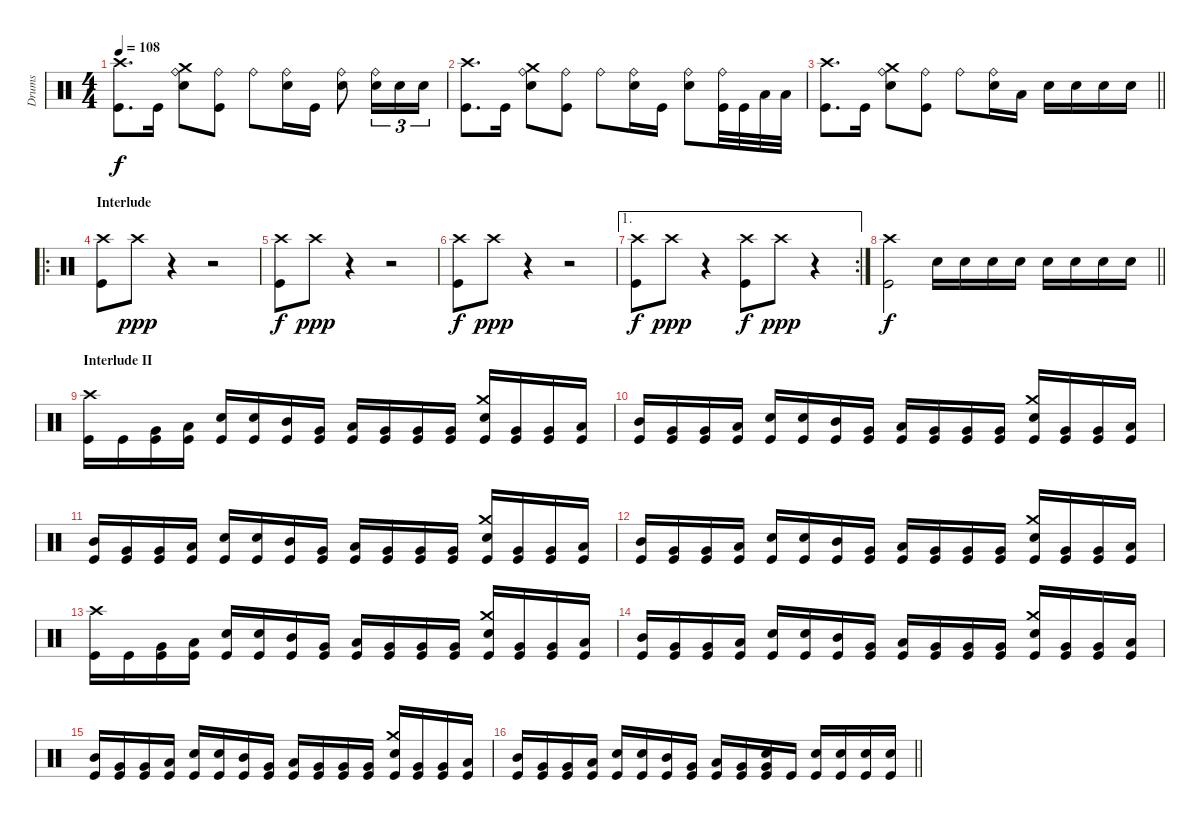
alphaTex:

\track ("Drums" "Drums") {instrument percussion}
\staff {score}
\articulation defaults
\ts (4 4)
\tempo 108
\clef neutral
\ks c
("Crash high (hit)" "Kick (hit)").8{d dy f} "Kick (hit)".16 ("Crash medium (hit)" "Ride (bell)" "Electric Snare (hit)").8 ("Ride (bell)" "Kick (hit)").8 "Ride (bell)".8 ("Ride (bell)" "Electric Snare (hit)").16 "Kick (hit)".16 ("Ride (bell)" "Electric Snare (hit)").8 ("Ride (bell)" "Electric Snare (hit)").16{tu (3 2)} "Electric Snare (hit)".16{tu (3 2)} "Electric Snare (hit)".16{tu (3 2)} |
("Crash high (hit)" "Kick (hit)").8{d} "Kick (hit)".16 ("Crash medium (hit)" "Ride (bell)" "Electric Snare (hit)").8 ("Ride (bell)" "Kick (hit)").8 "Ride (bell)".8 ("Ride (bell)" "Electric Snare (hit)").16 "Kick (hit)".16 ("Ride (bell)" "Electric Snare (hit)").8 ("Ride (bell)" "Kick (hit)").32 "Kick (hit)".32 "Low Tom (hit)".32 "Low Tom (hit)".32 |
\barLineRight lightlight
("Crash high (hit)" "Kick (hit)").8{d} "Kick (hit)".16 ("Crash medium (hit)" "Ride (bell)" "Electric Snare (hit)").8 ("Ride (bell)" "Kick (hit)").8 "Ride (bell)".8 ("Ride (bell)" "Electric Snare (hit)").16 "Low Tom (hit)".16 "Electric Snare (hit)".16 "Electric Snare (hit)".16 "Electric Snare (hit)".16 "Electric Snare (hit)".16 |
\ro
\section ("" "Interlude")
("Crash high (hit)" "Kick (hit)").8 "Crash high (hit)".8{dy ppp} r.4 r.2 |
("Crash high (hit)" "Kick (hit)").8{dy f} "Crash high (hit)".8{dy ppp} r.4 r.2 |
("Crash high (hit)" "Kick (hit)").8{dy f} "Crash high (hit)".8{dy ppp} r.4 r.2 |
\ae 1
\rc 2
("Crash high (hit)" "Kick (hit)").8{dy f} "Crash high (hit)".8{dy ppp} r.4 ("Crash high (hit)" "Kick (hit)").8{dy f} "Crash high (hit)".8{dy ppp} r.4 |
\barLineRight lightlight
("Crash high (hit)" "Kick (hit)").2{dy f} "Electric Snare (hit)".16 "Electric Snare (hit)".16 "Electric Snare (hit)".16 "Electric Snare (hit)".16 "Electric Snare (hit)".16 "Electric Snare (hit)".16 "Electric Snare (hit)".16 "Electric Snare (hit)".16 |
\section ("" "Interlude II")
("Crash high (hit)" "Kick (hit)").16 "Kick (hit)".16 ("Very Low Tom (hit)" "Kick (hit)").16 ("Low Floor Tom (hit)" "Kick (hit)").16 ("Electric Snare (hit)" "Kick (hit)").16 ("Electric Snare (hit)" "Kick (hit)").16 ("Mid Tom (hit)" "Kick (hit)").16 ("Very Low Tom (hit)" "Kick (hit)").16 ("Low Tom (hit)" "Kick (hit)").16 ("Very Low Tom (hit)" "Kick (hit)").16 ("Very Low Tom (hit)" "Kick (hit)").16 ("Very Low Tom (hit)" "Kick (hit)").16 ("Crash medium (hit)" "Electric Snare (hit)" "Kick (hit)").16 ("Very Low Tom (hit)" "Kick (hit)").16 ("Very Low Tom (hit)" "Kick (hit)").16 ("Low Floor Tom (hit)" "Kick (hit)").16 |
("Mid Tom (hit)" "Kick (hit)").16 ("Very Low Tom (hit)" "Kick (hit)").16 ("Very Low Tom (hit)" "Kick (hit)").16 ("Low Floor Tom (hit)" "Kick (hit)").16 ("Electric Snare (hit)" "Kick (hit)").16 ("Electric Snare (hit)" "Kick (hit)").16 ("Mid Tom (hit)" "Kick (hit)").16 ("Very Low Tom (hit)" "Kick (hit)").16 ("Low Tom (hit)" "Kick (hit)").16 ("Very Low Tom (hit)" "Kick (hit)").16 ("Very Low Tom (hit)" "Kick (hit)").16 ("Very Low Tom (hit)" "Kick (hit)").16 ("Crash medium (hit)" "Electric Snare (hit)" "Kick (hit)").16 ("Very Low Tom (hit)" "Kick (hit)").16 ("Very Low Tom (hit)" "Kick (hit)").16 ("Low Floor Tom (hit)" "Kick (hit)").16 |
("Mid Tom (hit)" "Kick (hit)").16 ("Very Low Tom (hit)" "Kick (hit)").16 ("Very Low Tom (hit)" "Kick (hit)").16 ("Low Floor Tom (hit)" "Kick (hit)").16 ("Electric Snare (hit)" "Kick (hit)").16 ("Electric Snare (hit)" "Kick (hit)").16 ("Mid Tom (hit)" "Kick (hit)").16 ("Very Low Tom (hit)" "Kick (hit)").16 ("Low Tom (hit)" "Kick (hit)").16 ("Very Low Tom (hit)" "Kick (hit)").16 ("Very Low Tom (hit)" "Kick (hit)").16 ("Very Low Tom (hit)" "Kick (hit)").16 ("Crash medium (hit)" "Electric Snare (hit)" "Kick (hit)").16 ("Very Low Tom (hit)" "Kick (hit)").16 ("Very Low Tom (hit)" "Kick (hit)").16 ("Low Floor Tom (hit)" "Kick (hit)").16 |
("Mid Tom (hit)" "Kick (hit)").16 ("Very Low Tom (hit)" "Kick (hit)").16 ("Very Low Tom (hit)" "Kick (hit)").16 ("Low Floor Tom (hit)" "Kick (hit)").16 ("Electric Snare (hit)" "Kick (hit)").16 ("Electric Snare (hit)" "Kick (hit)").16 ("Mid Tom (hit)" "Kick (hit)").16 ("Very Low Tom (hit)" "Kick (hit)").16 ("Low Tom (hit)" "Kick (hit)").16 ("Very Low Tom (hit)" "Kick (hit)").16 ("Very Low Tom (hit)" "Kick (hit)").16 ("Very Low Tom (hit)" "Kick (hit)").16 ("Crash medium (hit)" "Electric Snare (hit)" "Kick (hit)").16 ("Very Low Tom (hit)" "Kick (hit)").16 ("Very Low Tom (hit)" "Kick (hit)").16 ("Low Floor Tom (hit)" "Kick (hit)").16 |
("Crash high (hit)" "Kick (hit)").16 "Kick (hit)".16 ("Very Low Tom (hit)" "Kick (hit)").16 ("Low Floor Tom (hit)" "Kick (hit)").16 ("Electric Snare (hit)" "Kick (hit)").16 ("Electric Snare (hit)" "Kick (hit)").16 ("Mid Tom (hit)" "Kick (hit)").16 ("Very Low Tom (hit)" "Kick (hit)").16 ("Low Tom (hit)" "Kick (hit)").16 ("Very Low Tom (hit)" "Kick (hit)").16 ("Very Low Tom (hit)" "Kick (hit)").16 ("Very Low Tom (hit)" "Kick (hit)").16 ("Crash medium (hit)" "Electric Snare (hit)" "Kick (hit)").16 ("Very Low Tom (hit)" "Kick (hit)").16 ("Very Low Tom (hit)" "Kick (hit)").16 ("Low Floor Tom (hit)" "Kick (hit)").16 |
("Mid Tom (hit)" "Kick (hit)").16 ("Very Low Tom (hit)" "Kick (hit)").16 ("Very Low Tom (hit)" "Kick (hit)").16 ("Low Floor Tom (hit)" "Kick (hit)").16 ("Electric Snare (hit)" "Kick (hit)").16 ("Electric Snare (hit)" "Kick (hit)").16 ("Mid Tom (hit)" "Kick (hit)").16 ("Very Low Tom (hit)" "Kick (hit)").16 ("Low Tom (hit)" "Kick (hit)").16 ("Very Low Tom (hit)" "Kick (hit)").16 ("Very Low Tom (hit)" "Kick (hit)").16 ("Very Low Tom (hit)" "Kick (hit)").16 ("Crash medium (hit)" "Electric Snare (hit)" "Kick (hit)").16 ("Very Low Tom (hit)" "Kick (hit)").16 ("Very Low Tom (hit)" "Kick (hit)").16 ("Low Floor Tom (hit)" "Kick (hit)").16 |
("Mid Tom (hit)" "Kick (hit)").16 ("Very Low Tom (hit)" "Kick (hit)").16 ("Very Low Tom (hit)" "Kick (hit)").16 ("Low Floor Tom (hit)" "Kick (hit)").16 ("Electric Snare (hit)" "Kick (hit)").16 ("Electric Snare (hit)" "Kick (hit)").16 ("Mid Tom (hit)" "Kick (hit)").16 ("Very Low Tom (hit)" "Kick (hit)").16 ("Low Tom (hit)" "Kick (hit)").16 ("Very Low Tom (hit)" "Kick (hit)").16 ("Very Low Tom (hit)" "Kick (hit)").16 ("Very Low Tom (hit)" "Kick (hit)").16 ("Crash medium (hit)" "Electric Snare (hit)" "Kick (hit)").16 ("Very Low Tom (hit)" "Kick (hit)").16 ("Very Low Tom (hit)" "Kick (hit)").16 ("Low Floor Tom (hit)" "Kick (hit)").16 |
\barLineRight lightlight
("Mid Tom (hit)" "Kick (hit)").16 ("Very Low Tom (hit)" "Kick (hit)").16 ("Very Low Tom (hit)" "Kick (hit)").16 ("Low Floor Tom (hit)" "Kick (hit)").16 ("Electric Snare (hit)" "Kick (hit)").16 ("Electric Snare (hit)" "Kick (hit)").16 ("Mid Tom (hit)" "Kick (hit)").16 ("Very Low Tom (hit)" "Kick (hit)").16 ("Low Tom (hit)" "Kick (hit)").16 ("Very Low Tom (hit)" "Kick (hit)").16 ("Very Low Tom (hit)" "Electric Snare (hit)" "Kick (hit)").16 "Kick (hit)".16 ("Electric Snare (hit)" "Kick (hit)").16 ("Electric Snare (hit)" "Kick (hit)").16 ("Electric Snare (hit)" "Kick (hit)").16 ("Electric Snare (hit)" "Kick (hit)").16
